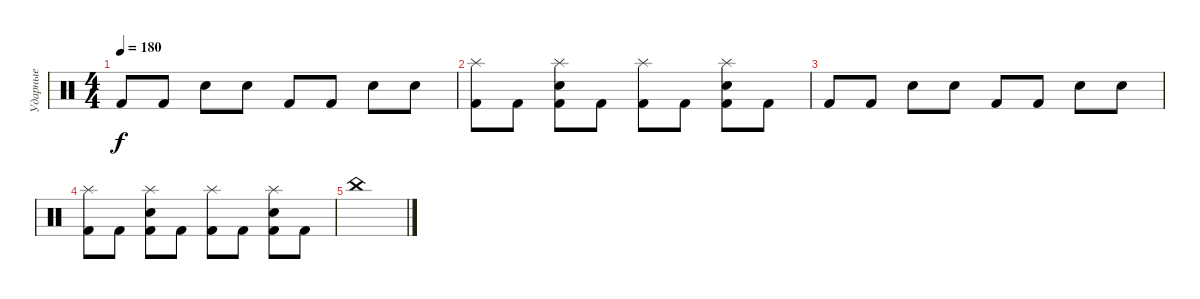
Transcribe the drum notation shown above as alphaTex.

\track ("Ударные" "Ударные") {instrument percussion}
\staff {score}
\articulation defaults
\ts (4 4)
\tempo 180
\clef neutral
\ks c "Kick (hit) 2".8{dy f} "Kick (hit) 2".8 "Electric Snare (hit)".8 "Electric Snare (hit)".8 "Kick (hit) 2".8 "Kick (hit) 2".8 "Electric Snare (hit)".8 "Electric Snare (hit)".8
|
("Splash (hit)" "Kick (hit) 2").8 "Kick (hit) 2".8 ("Splash (hit)" "Kick (hit) 2" "Electric Snare (hit)").8 "Kick (hit) 2".8 ("Splash (hit)" "Kick (hit) 2").8 "Kick (hit) 2".8 ("Splash (hit)" "Kick (hit) 2" "Electric Snare (hit)").8 "Kick (hit) 2".8 |
"Kick (hit) 2".8 "Kick (hit) 2".8 "Electric Snare (hit)".8 "Electric Snare (hit)".8 "Kick (hit) 2".8 "Kick (hit) 2".8 "Electric Snare (hit)".8 "Electric Snare (hit)".8 |
("Splash (hit)" "Kick (hit) 2").8 "Kick (hit) 2".8 ("Splash (hit)" "Kick (hit) 2" "Electric Snare (hit)").8 "Kick (hit) 2".8 ("Splash (hit)" "Kick (hit) 2").8 "Kick (hit) 2".8 ("Splash (hit)" "Kick (hit) 2" "Electric Snare (hit)").8 "Kick (hit) 2".8 |
"China (hit)".1
